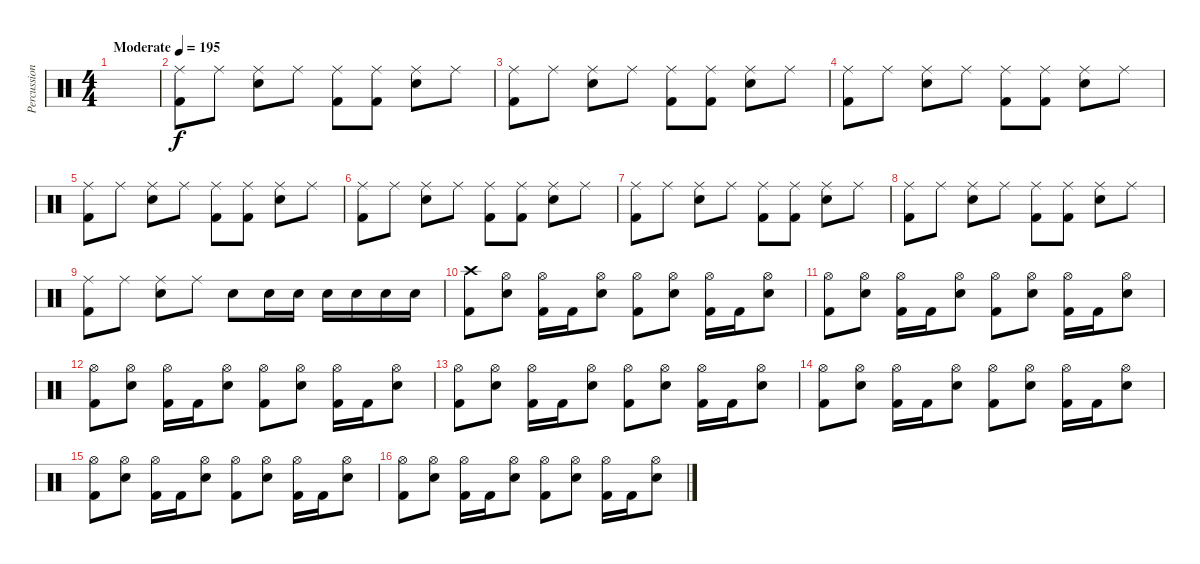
\track ("Percussion" "Percussion") {instrument percussion}
\staff {score}
\articulation defaults
\ts (4 4)
\tempo (195 "Moderate")
\clef neutral
\ks c
|
("Ride (middle)" "Kick (hit) 2").8 "Ride (middle)".8 ("Ride (middle)" "Electric Snare (hit)").8 "Ride (middle)".8 ("Ride (middle)" "Kick (hit) 2").8 ("Ride (middle)" "Kick (hit) 2").8 ("Ride (middle)" "Electric Snare (hit)").8 "Ride (middle)".8 |
("Ride (middle)" "Kick (hit) 2").8 "Ride (middle)".8 ("Ride (middle)" "Electric Snare (hit)").8 "Ride (middle)".8 ("Ride (middle)" "Kick (hit) 2").8 ("Ride (middle)" "Kick (hit) 2").8 ("Ride (middle)" "Electric Snare (hit)").8 "Ride (middle)".8 |
("Ride (middle)" "Kick (hit) 2").8 "Ride (middle)".8 ("Ride (middle)" "Electric Snare (hit)").8 "Ride (middle)".8 ("Ride (middle)" "Kick (hit) 2").8 ("Ride (middle)" "Kick (hit) 2").8 ("Ride (middle)" "Electric Snare (hit)").8 "Ride (middle)".8 |
("Ride (middle)" "Kick (hit) 2").8 "Ride (middle)".8 ("Ride (middle)" "Electric Snare (hit)").8 "Ride (middle)".8 ("Ride (middle)" "Kick (hit) 2").8 ("Ride (middle)" "Kick (hit) 2").8 ("Ride (middle)" "Electric Snare (hit)").8 "Ride (middle)".8 |
("Ride (middle)" "Kick (hit) 2").8 "Ride (middle)".8 ("Ride (middle)" "Electric Snare (hit)").8 "Ride (middle)".8 ("Ride (middle)" "Kick (hit) 2").8 ("Ride (middle)" "Kick (hit) 2").8 ("Ride (middle)" "Electric Snare (hit)").8 "Ride (middle)".8 |
("Ride (middle)" "Kick (hit) 2").8 "Ride (middle)".8 ("Ride (middle)" "Electric Snare (hit)").8 "Ride (middle)".8 ("Ride (middle)" "Kick (hit) 2").8 ("Ride (middle)" "Kick (hit) 2").8 ("Ride (middle)" "Electric Snare (hit)").8 "Ride (middle)".8 |
("Ride (middle)" "Kick (hit) 2").8 "Ride (middle)".8 ("Ride (middle)" "Electric Snare (hit)").8 "Ride (middle)".8 ("Ride (middle)" "Kick (hit) 2").8 ("Ride (middle)" "Kick (hit) 2").8 ("Ride (middle)" "Electric Snare (hit)").8 "Ride (middle)".8 |
("Ride (middle)" "Kick (hit) 2").8 "Ride (middle)".8 ("Ride (middle)" "Electric Snare (hit)").8 "Ride (middle)".8 "Electric Snare (hit)".8 "Electric Snare (hit)".16 "Electric Snare (hit)".16 "Electric Snare (hit)".16 "Electric Snare (hit)".16 "Electric Snare (hit)".16 "Electric Snare (hit)".16 |
("Crash high (hit)" "Kick (hit) 2").8 ("Hi-Hat (open)" "Electric Snare (hit)").8 ("Hi-Hat (open)" "Kick (hit) 2").16 "Kick (hit) 2".16 ("Hi-Hat (open)" "Electric Snare (hit)").8 ("Hi-Hat (open)" "Kick (hit) 2").8 ("Hi-Hat (open)" "Electric Snare (hit)").8 ("Hi-Hat (open)" "Kick (hit) 2").16 "Kick (hit) 2".16 ("Hi-Hat (open)" "Electric Snare (hit)").8 |
("Hi-Hat (open)" "Kick (hit) 2").8 ("Hi-Hat (open)" "Electric Snare (hit)").8 ("Hi-Hat (open)" "Kick (hit) 2").16 "Kick (hit) 2".16 ("Hi-Hat (open)" "Electric Snare (hit)").8 ("Hi-Hat (open)" "Kick (hit) 2").8 ("Hi-Hat (open)" "Electric Snare (hit)").8 ("Hi-Hat (open)" "Kick (hit) 2").16 "Kick (hit) 2".16 ("Hi-Hat (open)" "Electric Snare (hit)").8 |
("Hi-Hat (open)" "Kick (hit) 2").8 ("Hi-Hat (open)" "Electric Snare (hit)").8 ("Hi-Hat (open)" "Kick (hit) 2").16 "Kick (hit) 2".16 ("Hi-Hat (open)" "Electric Snare (hit)").8 ("Hi-Hat (open)" "Kick (hit) 2").8 ("Hi-Hat (open)" "Electric Snare (hit)").8 ("Hi-Hat (open)" "Kick (hit) 2").16 "Kick (hit) 2".16 ("Hi-Hat (open)" "Electric Snare (hit)").8 |
("Hi-Hat (open)" "Kick (hit) 2").8 ("Hi-Hat (open)" "Electric Snare (hit)").8 ("Hi-Hat (open)" "Kick (hit) 2").16 "Kick (hit) 2".16 ("Hi-Hat (open)" "Electric Snare (hit)").8 ("Hi-Hat (open)" "Kick (hit) 2").8 ("Hi-Hat (open)" "Electric Snare (hit)").8 ("Hi-Hat (open)" "Kick (hit) 2").16 "Kick (hit) 2".16 ("Hi-Hat (open)" "Electric Snare (hit)").8 |
("Hi-Hat (open)" "Kick (hit) 2").8 ("Hi-Hat (open)" "Electric Snare (hit)").8 ("Hi-Hat (open)" "Kick (hit) 2").16 "Kick (hit) 2".16 ("Hi-Hat (open)" "Electric Snare (hit)").8 ("Hi-Hat (open)" "Kick (hit) 2").8 ("Hi-Hat (open)" "Electric Snare (hit)").8 ("Hi-Hat (open)" "Kick (hit) 2").16 "Kick (hit) 2".16 ("Hi-Hat (open)" "Electric Snare (hit)").8 |
("Hi-Hat (open)" "Kick (hit) 2").8 ("Hi-Hat (open)" "Electric Snare (hit)").8 ("Hi-Hat (open)" "Kick (hit) 2").16 "Kick (hit) 2".16 ("Hi-Hat (open)" "Electric Snare (hit)").8 ("Hi-Hat (open)" "Kick (hit) 2").8 ("Hi-Hat (open)" "Electric Snare (hit)").8 ("Hi-Hat (open)" "Kick (hit) 2").16 "Kick (hit) 2".16 ("Hi-Hat (open)" "Electric Snare (hit)").8 |
("Hi-Hat (open)" "Kick (hit) 2").8 ("Hi-Hat (open)" "Electric Snare (hit)").8 ("Hi-Hat (open)" "Kick (hit) 2").16 "Kick (hit) 2".16 ("Hi-Hat (open)" "Electric Snare (hit)").8 ("Hi-Hat (open)" "Kick (hit) 2").8 ("Hi-Hat (open)" "Electric Snare (hit)").8 ("Hi-Hat (open)" "Kick (hit) 2").16 "Kick (hit) 2".16 ("Hi-Hat (open)" "Electric Snare (hit)").8
